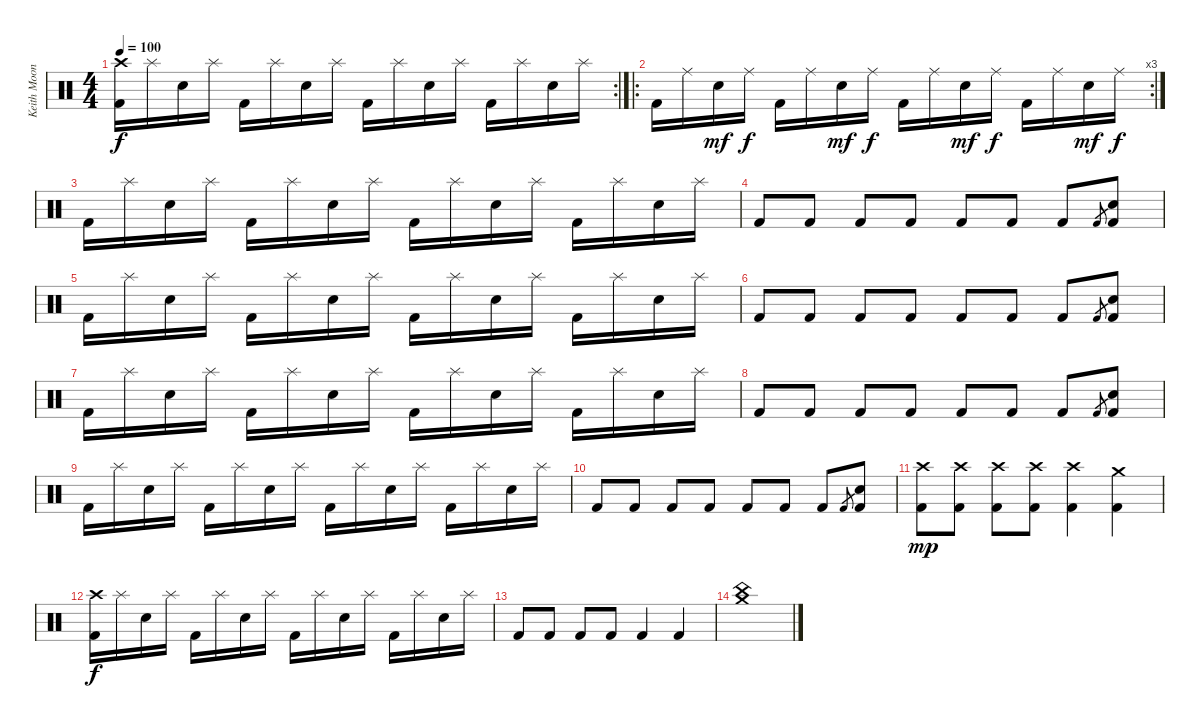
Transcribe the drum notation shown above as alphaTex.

\track ("Keith Moon - Drums" "Keith Moon") {instrument percussion}
\staff {score}
\articulation defaults
\rc 2
\ts (4 4)
\tempo 100
\clef neutral
\ks c
("Kick (hit) 2" "Crash high (hit)").16{dy f} "Splash (hit)".16 "Electric Snare (hit)".16 "Splash (hit)".16 "Kick (hit) 2".16 "Splash (hit)".16 "Electric Snare (hit)".16 "Splash (hit)".16 "Kick (hit) 2".16 "Splash (hit)".16 "Electric Snare (hit)".16 "Splash (hit)".16 "Kick (hit) 2".16 "Splash (hit)".16 "Electric Snare (hit)".16 "Splash (hit)".16 |
\ro
\rc 3 "Kick (hit) 2".16 "Ride (middle)".16 "Electric Snare (hit)".16{dy mf} "Ride (middle)".16{dy f} "Kick (hit) 2".16 "Ride (middle)".16 "Electric Snare (hit)".16{dy mf} "Ride (middle)".16{dy f} "Kick (hit) 2".16 "Ride (middle)".16 "Electric Snare (hit)".16{dy mf} "Ride (middle)".16{dy f} "Kick (hit) 2".16 "Ride (middle)".16 "Electric Snare (hit)".16{dy mf} "Ride (middle)".16{dy f}
|
"Kick (hit) 2".16 "Splash (hit)".16 "Electric Snare (hit)".16 "Splash (hit)".16 "Kick (hit) 2".16 "Splash (hit)".16 "Electric Snare (hit)".16 "Splash (hit)".16 "Kick (hit) 2".16 "Splash (hit)".16 "Electric Snare (hit)".16 "Splash (hit)".16 "Kick (hit) 2".16 "Splash (hit)".16 "Electric Snare (hit)".16 "Splash (hit)".16 |
"Kick (hit) 2".8 "Kick (hit) 2".8 "Kick (hit) 2".8 "Kick (hit) 2".8 "Kick (hit) 2".8 "Kick (hit) 2".8 "Kick (hit) 2".8 "Kick (hit) 2".8{gr} ("Kick (hit) 2" "Electric Snare (hit)").8 |
"Kick (hit) 2".16 "Splash (hit)".16 "Electric Snare (hit)".16 "Splash (hit)".16 "Kick (hit) 2".16 "Splash (hit)".16 "Electric Snare (hit)".16 "Splash (hit)".16 "Kick (hit) 2".16 "Splash (hit)".16 "Electric Snare (hit)".16 "Splash (hit)".16 "Kick (hit) 2".16 "Splash (hit)".16 "Electric Snare (hit)".16 "Splash (hit)".16 |
"Kick (hit) 2".8 "Kick (hit) 2".8 "Kick (hit) 2".8 "Kick (hit) 2".8 "Kick (hit) 2".8 "Kick (hit) 2".8 "Kick (hit) 2".8 "Kick (hit) 2".8{gr} ("Kick (hit) 2" "Electric Snare (hit)").8 |
"Kick (hit) 2".16 "Splash (hit)".16 "Electric Snare (hit)".16 "Splash (hit)".16 "Kick (hit) 2".16 "Splash (hit)".16 "Electric Snare (hit)".16 "Splash (hit)".16 "Kick (hit) 2".16 "Splash (hit)".16 "Electric Snare (hit)".16 "Splash (hit)".16 "Kick (hit) 2".16 "Splash (hit)".16 "Electric Snare (hit)".16 "Splash (hit)".16 |
"Kick (hit) 2".8 "Kick (hit) 2".8 "Kick (hit) 2".8 "Kick (hit) 2".8 "Kick (hit) 2".8 "Kick (hit) 2".8 "Kick (hit) 2".8 "Kick (hit) 2".8{gr} ("Kick (hit) 2" "Electric Snare (hit)").8 |
"Kick (hit) 2".16 "Splash (hit)".16 "Electric Snare (hit)".16 "Splash (hit)".16 "Kick (hit) 2".16 "Splash (hit)".16 "Electric Snare (hit)".16 "Splash (hit)".16 "Kick (hit) 2".16 "Splash (hit)".16 "Electric Snare (hit)".16 "Splash (hit)".16 "Kick (hit) 2".16 "Splash (hit)".16 "Electric Snare (hit)".16 "Splash (hit)".16 |
"Kick (hit) 2".8 "Kick (hit) 2".8 "Kick (hit) 2".8 "Kick (hit) 2".8 "Kick (hit) 2".8 "Kick (hit) 2".8 "Kick (hit) 2".8 "Kick (hit) 2".8{gr} ("Kick (hit) 2" "Electric Snare (hit)").8 |
("Kick (hit) 2" "Crash high (hit)").8{dy mp} ("Kick (hit) 2" "Crash high (hit)").8 ("Kick (hit) 2" "Crash high (hit)").8 ("Kick (hit) 2" "Crash high (hit)").8 ("Kick (hit) 2" "Crash high (hit)").4 ("Kick (hit) 2" "Crash medium (hit)").4 |
("Kick (hit) 2" "Crash high (hit)").16{dy f} "Splash (hit)".16 "Electric Snare (hit)".16 "Splash (hit)".16 "Kick (hit) 2".16 "Splash (hit)".16 "Electric Snare (hit)".16 "Splash (hit)".16 "Kick (hit) 2".16 "Splash (hit)".16 "Electric Snare (hit)".16 "Splash (hit)".16 "Kick (hit) 2".16 "Splash (hit)".16 "Electric Snare (hit)".16 "Splash (hit)".16 |
"Kick (hit) 2".8 "Kick (hit) 2".8 "Kick (hit) 2".8 "Kick (hit) 2".8 "Kick (hit) 2".4 "Kick (hit) 2".4 |
("Crash medium (hit)" "China (hit)").1
